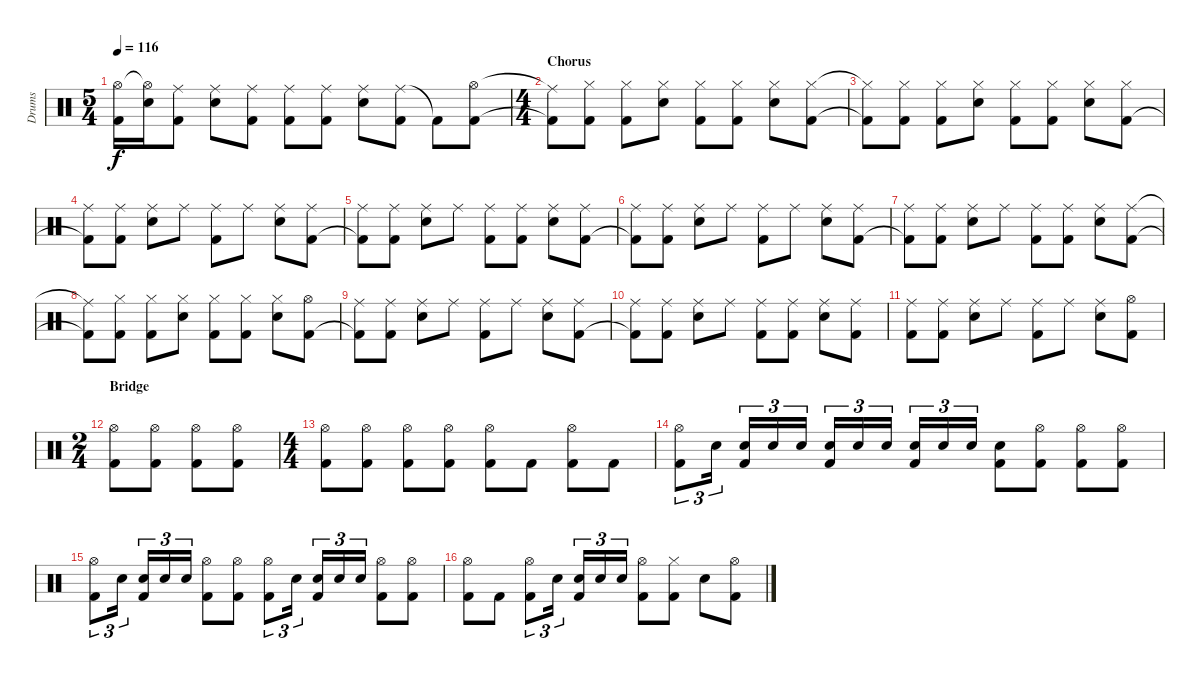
\track ("Drums" "Drums") {instrument percussion}
\staff {score}
\articulation defaults
\ts (5 4)
\tempo 116
\clef neutral
\ks c
("Hi-Hat (open)" "Kick (hit) 2"{t}).16{dy f} ("Hi-Hat (open)"{t} "Snare (hit) 2").16 ("Ride (middle)" "Kick (hit) 2").8 ("Ride (middle)" "Snare (hit) 2").8 ("Ride (middle)" "Kick (hit) 2").8 ("Ride (middle)" "Kick (hit) 2").8 ("Ride (middle)" "Kick (hit) 2").8 ("Ride (middle)" "Snare (hit) 2").8 ("Ride (middle)" "Kick (hit) 2").8 "Kick (hit) 2"{t}.8 ("Hi-Hat (open)" "Kick (hit) 2").8 |
\ts (4 4)
\section ("" "Chorus")
("Ride (middle)"{t} "Kick (hit) 2"{t}).8 ("Hi-Hat (closed)" "Kick (hit) 2").8 ("Hi-Hat (closed)" "Kick (hit) 2").8 ("Hi-Hat (closed)" "Snare (hit) 2").8 ("Hi-Hat (closed)" "Kick (hit) 2").8 ("Hi-Hat (closed)" "Kick (hit) 2").8 ("Hi-Hat (closed)" "Snare (hit) 2").8 ("Hi-Hat (closed)" "Kick (hit) 2").8 |
("Hi-Hat (closed)"{t} "Kick (hit) 2"{t}).8 ("Hi-Hat (closed)" "Kick (hit) 2").8 ("Hi-Hat (closed)" "Kick (hit) 2").8 ("Hi-Hat (closed)" "Snare (hit) 2").8 ("Hi-Hat (closed)" "Kick (hit) 2").8 ("Hi-Hat (closed)" "Kick (hit) 2").8 ("Hi-Hat (closed)" "Snare (hit) 2").8 ("Hi-Hat (closed)" "Kick (hit) 2").8 |
("Ride (middle)" "Kick (hit) 2"{t}).8 ("Ride (middle)" "Kick (hit) 2").8 ("Ride (middle)" "Snare (hit) 2").8 "Ride (middle)".8 ("Ride (middle)" "Kick (hit) 2").8 "Ride (middle)".8 ("Ride (middle)" "Snare (hit) 2").8 ("Ride (middle)" "Kick (hit) 2").8 |
("Ride (middle)" "Kick (hit) 2"{t}).8 ("Ride (middle)" "Kick (hit) 2").8 ("Ride (middle)" "Snare (hit) 2").8 "Ride (middle)".8 ("Ride (middle)" "Kick (hit) 2").8 ("Ride (middle)" "Kick (hit) 2").8 ("Ride (middle)" "Snare (hit) 2").8 ("Ride (middle)" "Kick (hit) 2").8 |
("Ride (middle)" "Kick (hit) 2"{t}).8 ("Ride (middle)" "Kick (hit) 2").8 ("Ride (middle)" "Snare (hit) 2").8 "Ride (middle)".8 ("Ride (middle)" "Kick (hit) 2").8 "Ride (middle)".8 ("Ride (middle)" "Snare (hit) 2").8 ("Ride (middle)" "Kick (hit) 2").8 |
("Ride (middle)" "Kick (hit) 2"{t}).8 ("Ride (middle)" "Kick (hit) 2").8 ("Ride (middle)" "Snare (hit) 2").8 "Ride (middle)".8 ("Ride (middle)" "Kick (hit) 2").8 ("Ride (middle)" "Kick (hit) 2").8 ("Ride (middle)" "Snare (hit) 2").8 ("Ride (middle)" "Kick (hit) 2").8 |
("Ride (middle)"{t} "Kick (hit) 2"{t}).8 ("Hi-Hat (closed)" "Kick (hit) 2").8 ("Hi-Hat (closed)" "Kick (hit) 2").8 ("Hi-Hat (closed)" "Snare (hit) 2").8 ("Hi-Hat (closed)" "Kick (hit) 2").8 ("Hi-Hat (closed)" "Kick (hit) 2").8 ("Hi-Hat (closed)" "Snare (hit) 2").8 ("Hi-Hat (open)" "Kick (hit) 2").8 |
("Ride (middle)" "Kick (hit) 2"{t}).8 ("Ride (middle)" "Kick (hit) 2").8 ("Ride (middle)" "Snare (hit) 2").8 "Ride (middle)".8 ("Ride (middle)" "Kick (hit) 2").8 "Ride (middle)".8 ("Ride (middle)" "Snare (hit) 2").8 ("Ride (middle)" "Kick (hit) 2").8 |
("Ride (middle)" "Kick (hit) 2"{t}).8 ("Ride (middle)" "Kick (hit) 2").8 ("Ride (middle)" "Snare (hit) 2").8 "Ride (middle)".8 ("Ride (middle)" "Kick (hit) 2").8 ("Ride (middle)" "Kick (hit) 2").8 ("Ride (middle)" "Snare (hit) 2").8 ("Ride (middle)" "Kick (hit) 2").8 |
("Ride (middle)" "Kick (hit) 2").8 ("Ride (middle)" "Kick (hit) 2").8 ("Ride (middle)" "Snare (hit) 2").8 "Ride (middle)".8 ("Ride (middle)" "Kick (hit) 2").8 "Ride (middle)".8 ("Ride (middle)" "Snare (hit) 2").8 ("Hi-Hat (open)" "Kick (hit) 2").8 |
\ts (2 4)
\section ("" "Bridge")
("Hi-Hat (open)" "Kick (hit) 2").8 ("Hi-Hat (open)" "Kick (hit) 2").8 ("Hi-Hat (open)" "Kick (hit) 2").8 ("Hi-Hat (open)" "Kick (hit) 2").8 |
\ts (4 4)
("Hi-Hat (open)" "Kick (hit) 2").8 ("Hi-Hat (open)" "Kick (hit) 2").8 ("Hi-Hat (open)" "Kick (hit) 2").8 ("Hi-Hat (open)" "Kick (hit) 2").8 ("Hi-Hat (open)" "Kick (hit) 2").8 "Kick (hit) 2".8 ("Hi-Hat (open)" "Kick (hit) 2").8 "Kick (hit) 2".8 |
("Hi-Hat (open)" "Kick (hit) 2").8{tu (3 2)} "Snare (hit) 2".16{tu (3 2)} ("Snare (hit) 2" "Kick (hit) 2").16{tu (3 2)} "Snare (hit) 2".16{tu (3 2)} "Snare (hit) 2".16{tu (3 2)} ("Snare (hit) 2" "Kick (hit) 2").16{tu (3 2)} "Snare (hit) 2".16{tu (3 2)} "Snare (hit) 2".16{tu (3 2)} ("Snare (hit) 2" "Kick (hit) 2").16{tu (3 2)} "Snare (hit) 2".16{tu (3 2)} "Snare (hit) 2".16{tu (3 2)} ("Snare (hit) 2" "Kick (hit) 2").8 ("Hi-Hat (open)" "Kick (hit) 2").8 ("Hi-Hat (open)" "Kick (hit) 2").8 ("Hi-Hat (open)" "Kick (hit) 2").8 |
("Hi-Hat (open)" "Kick (hit) 2").8{tu (3 2)} "Snare (hit) 2".16{tu (3 2)} ("Snare (hit) 2" "Kick (hit) 2").16{tu (3 2)} "Snare (hit) 2".16{tu (3 2)} "Snare (hit) 2".16{tu (3 2)} ("Hi-Hat (open)" "Kick (hit) 2").8 ("Hi-Hat (open)" "Kick (hit) 2").8 ("Hi-Hat (open)" "Kick (hit) 2").8{tu (3 2)} "Snare (hit) 2".16{tu (3 2)} ("Snare (hit) 2" "Kick (hit) 2").16{tu (3 2)} "Snare (hit) 2".16{tu (3 2)} "Snare (hit) 2".16{tu (3 2)} ("Hi-Hat (open)" "Kick (hit) 2").8 ("Hi-Hat (open)" "Kick (hit) 2").8 |
("Hi-Hat (open)" "Kick (hit) 2").8 "Kick (hit) 2".8 ("Hi-Hat (open)" "Kick (hit) 2").8{tu (3 2)} "Snare (hit) 2".16{tu (3 2)} ("Snare (hit) 2" "Kick (hit) 2").16{tu (3 2)} "Snare (hit) 2".16{tu (3 2)} "Snare (hit) 2".16{tu (3 2)} ("Hi-Hat (open)" "Kick (hit) 2").8 ("Hi-Hat (closed)" "Kick (hit) 2").8 "Snare (hit) 2".8 ("Hi-Hat (open)" "Kick (hit) 2").8
